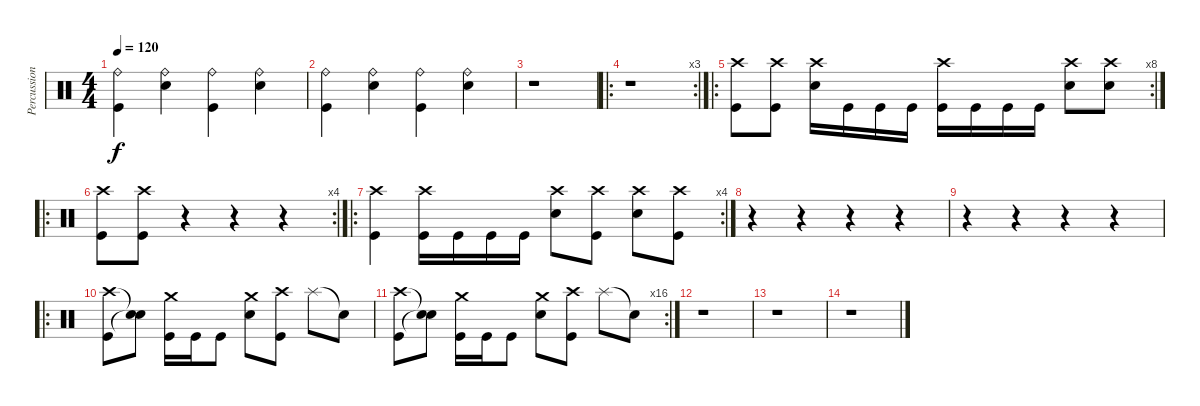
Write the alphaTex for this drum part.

\track ("Percussion" "Percussion") {instrument percussion}
\staff {score}
\articulation defaults
\ts (4 4)
\tempo 120
\clef neutral
\ks c
("Ride (bell)" "Kick (hit)").4{dy f} ("Ride (bell)" "Electric Snare (hit)").4 ("Ride (bell)" "Kick (hit)").4 ("Ride (bell)" "Electric Snare (hit)").4 |
("Ride (bell)" "Kick (hit)").4 ("Ride (bell)" "Electric Snare (hit)").4 ("Ride (bell)" "Kick (hit)").4 ("Ride (bell)" "Electric Snare (hit)").4 |
r.1 |
\ro
\rc 3
r.1 |
\ro
\rc 8
("Crash high (hit)" "Kick (hit)").8 ("Crash high (hit)" "Kick (hit)").8 ("Crash high (hit)" "Electric Snare (hit)").16 "Kick (hit)".16 "Kick (hit)".16 "Kick (hit)".16 ("Crash high (hit)" "Kick (hit)").16 "Kick (hit)".16 "Kick (hit)".16 "Kick (hit)".16 ("Crash high (hit)" "Electric Snare (hit)").8 ("Crash high (hit)" "Electric Snare (hit)").8 |
\ro
\rc 4
("Crash high (hit)" "Kick (hit)").8 ("Crash high (hit)" "Kick (hit)").8 r.4 r.4 r.4 |
\ro
\rc 4
("Crash high (hit)" "Kick (hit)").4 ("Crash high (hit)" "Kick (hit)").16 "Kick (hit)".16 "Kick (hit)".16 "Kick (hit)".16 ("Crash high (hit)" "Electric Snare (hit)").8 ("Crash high (hit)" "Kick (hit)").8 ("Crash high (hit)" "Electric Snare (hit)").8 ("Crash high (hit)" "Kick (hit)").8 |
r.4 r.4 r.4 r.4 |
r.4 r.4 r.4 r.4 |
\ro
("Crash high (hit)" "Kick (hit)").8 ("Snare (hit)"{t} "Snare (hit)"{t}).8 ("Crash medium (hit)" "Kick (hit)").16 "Kick (hit)".16 "Kick (hit)".8 ("Crash medium (hit)" "Electric Snare (hit)").8 ("Crash high (hit)" "Kick (hit)").8 "Splash (hit)".8 "Snare (hit)"{t}.8 |
\rc 16
("Crash high (hit)" "Kick (hit)").8 ("Snare (hit)"{t} "Snare (hit)"{t}).8 ("Crash medium (hit)" "Kick (hit)").16 "Kick (hit)".16 "Kick (hit)".8 ("Crash medium (hit)" "Electric Snare (hit)").8 ("Crash high (hit)" "Kick (hit)").8 "Splash (hit)".8 "Snare (hit)"{t}.8 |
r.1 |
r.1 |
r.1
